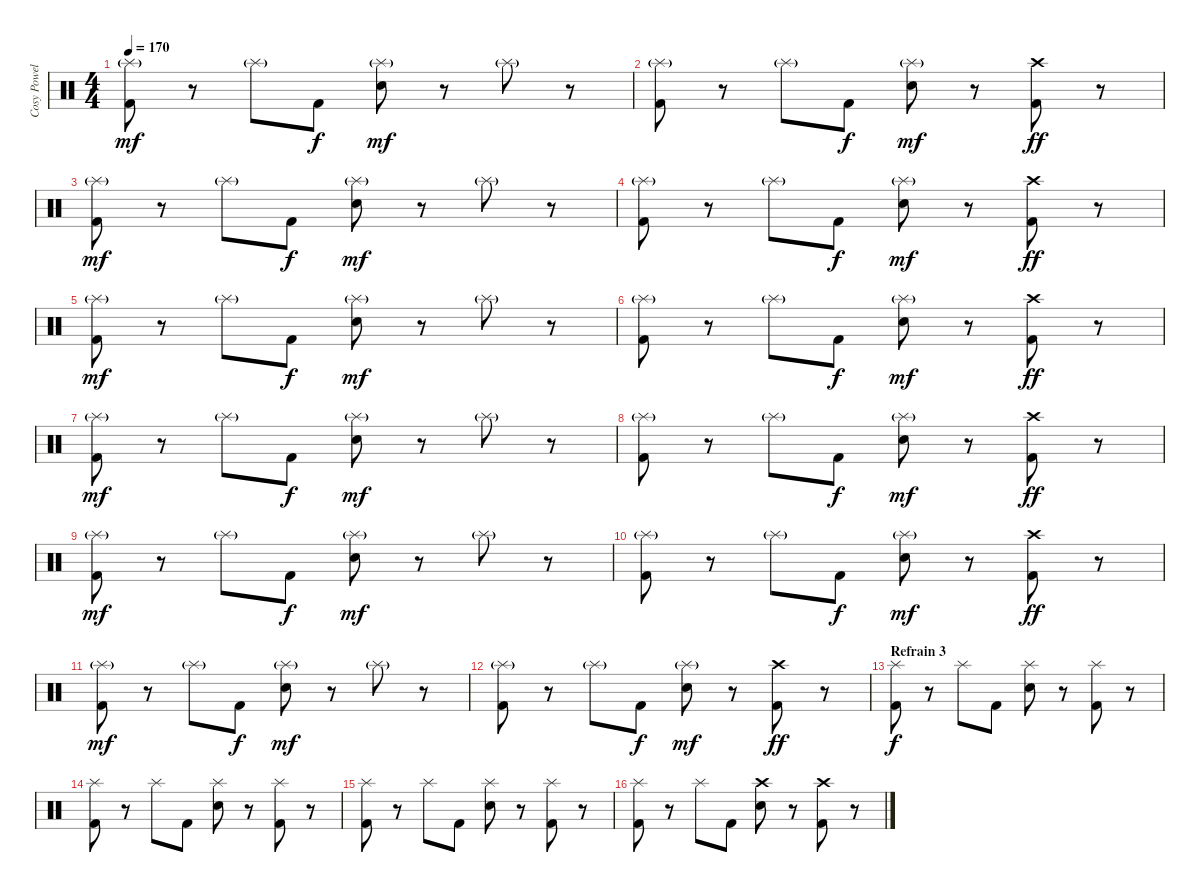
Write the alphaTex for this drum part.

\track ("Cosy Powell" "Cosy Powel") {instrument percussion}
\staff {score}
\articulation defaults
\ts (4 4)
\tempo 170
\clef neutral
\ks c
("Splash (hit)"{g} "Kick (hit) 2").8{dy mf} r.8 "Splash (hit)"{g}.8 "Kick (hit) 2".8{dy f} ("Splash (hit)"{g} "Snare (hit) 2").8{dy mf} r.8 "Splash (hit)"{g}.8 r.8 |
("Splash (hit)"{g} "Kick (hit) 2").8 r.8 "Splash (hit)"{g}.8 "Kick (hit) 2".8{dy f} ("Splash (hit)"{g} "Snare (hit) 2").8{dy mf} r.8 ("Crash high (hit)" "Kick (hit) 2").8{dy ff} r.8 |
("Splash (hit)"{g} "Kick (hit) 2").8{dy mf} r.8 "Splash (hit)"{g}.8 "Kick (hit) 2".8{dy f} ("Splash (hit)"{g} "Snare (hit) 2").8{dy mf} r.8 "Splash (hit)"{g}.8 r.8 |
("Splash (hit)"{g} "Kick (hit) 2").8 r.8 "Splash (hit)"{g}.8 "Kick (hit) 2".8{dy f} ("Splash (hit)"{g} "Snare (hit) 2").8{dy mf} r.8 ("Crash high (hit)" "Kick (hit) 2").8{dy ff} r.8 |
("Splash (hit)"{g} "Kick (hit) 2").8{dy mf} r.8 "Splash (hit)"{g}.8 "Kick (hit) 2".8{dy f} ("Splash (hit)"{g} "Snare (hit) 2").8{dy mf} r.8 "Splash (hit)"{g}.8 r.8 |
("Splash (hit)"{g} "Kick (hit) 2").8 r.8 "Splash (hit)"{g}.8 "Kick (hit) 2".8{dy f} ("Splash (hit)"{g} "Snare (hit) 2").8{dy mf} r.8 ("Crash high (hit)" "Kick (hit) 2").8{dy ff} r.8 |
("Splash (hit)"{g} "Kick (hit) 2").8{dy mf} r.8 "Splash (hit)"{g}.8 "Kick (hit) 2".8{dy f} ("Splash (hit)"{g} "Snare (hit) 2").8{dy mf} r.8 "Splash (hit)"{g}.8 r.8 |
("Splash (hit)"{g} "Kick (hit) 2").8 r.8 "Splash (hit)"{g}.8 "Kick (hit) 2".8{dy f} ("Splash (hit)"{g} "Snare (hit) 2").8{dy mf} r.8 ("Crash high (hit)" "Kick (hit) 2").8{dy ff} r.8 |
("Splash (hit)"{g} "Kick (hit) 2").8{dy mf} r.8 "Splash (hit)"{g}.8 "Kick (hit) 2".8{dy f} ("Splash (hit)"{g} "Snare (hit) 2").8{dy mf} r.8 "Splash (hit)"{g}.8 r.8 |
("Splash (hit)"{g} "Kick (hit) 2").8 r.8 "Splash (hit)"{g}.8 "Kick (hit) 2".8{dy f} ("Splash (hit)"{g} "Snare (hit) 2").8{dy mf} r.8 ("Crash high (hit)" "Kick (hit) 2").8{dy ff} r.8 |
("Splash (hit)"{g} "Kick (hit) 2").8{dy mf} r.8 "Splash (hit)"{g}.8 "Kick (hit) 2".8{dy f} ("Splash (hit)"{g} "Snare (hit) 2").8{dy mf} r.8 "Splash (hit)"{g}.8 r.8 |
("Splash (hit)"{g} "Kick (hit) 2").8 r.8 "Splash (hit)"{g}.8 "Kick (hit) 2".8{dy f} ("Splash (hit)"{g} "Snare (hit) 2").8{dy mf} r.8 ("Crash high (hit)" "Kick (hit) 2").8{dy ff} r.8 |
\section ("" "Refrain 3")
("Splash (hit)" "Kick (hit) 2").8{dy f} r.8 "Splash (hit)".8 "Kick (hit) 2".8 ("Splash (hit)" "Snare (hit) 2").8 r.8 ("Splash (hit)" "Kick (hit) 2").8 r.8 |
("Splash (hit)" "Kick (hit) 2").8 r.8 "Splash (hit)".8 "Kick (hit) 2".8 ("Splash (hit)" "Snare (hit) 2").8 r.8 ("Splash (hit)" "Kick (hit) 2").8 r.8 |
("Splash (hit)" "Kick (hit) 2").8 r.8 "Splash (hit)".8 "Kick (hit) 2".8 ("Splash (hit)" "Snare (hit) 2").8 r.8 ("Splash (hit)" "Kick (hit) 2").8 r.8 |
("Splash (hit)" "Kick (hit) 2").8 r.8 "Splash (hit)".8 "Kick (hit) 2".8 ("Crash high (hit)" "Snare (hit) 2").8 r.8 ("Crash high (hit)" "Kick (hit) 2").8 r.8
